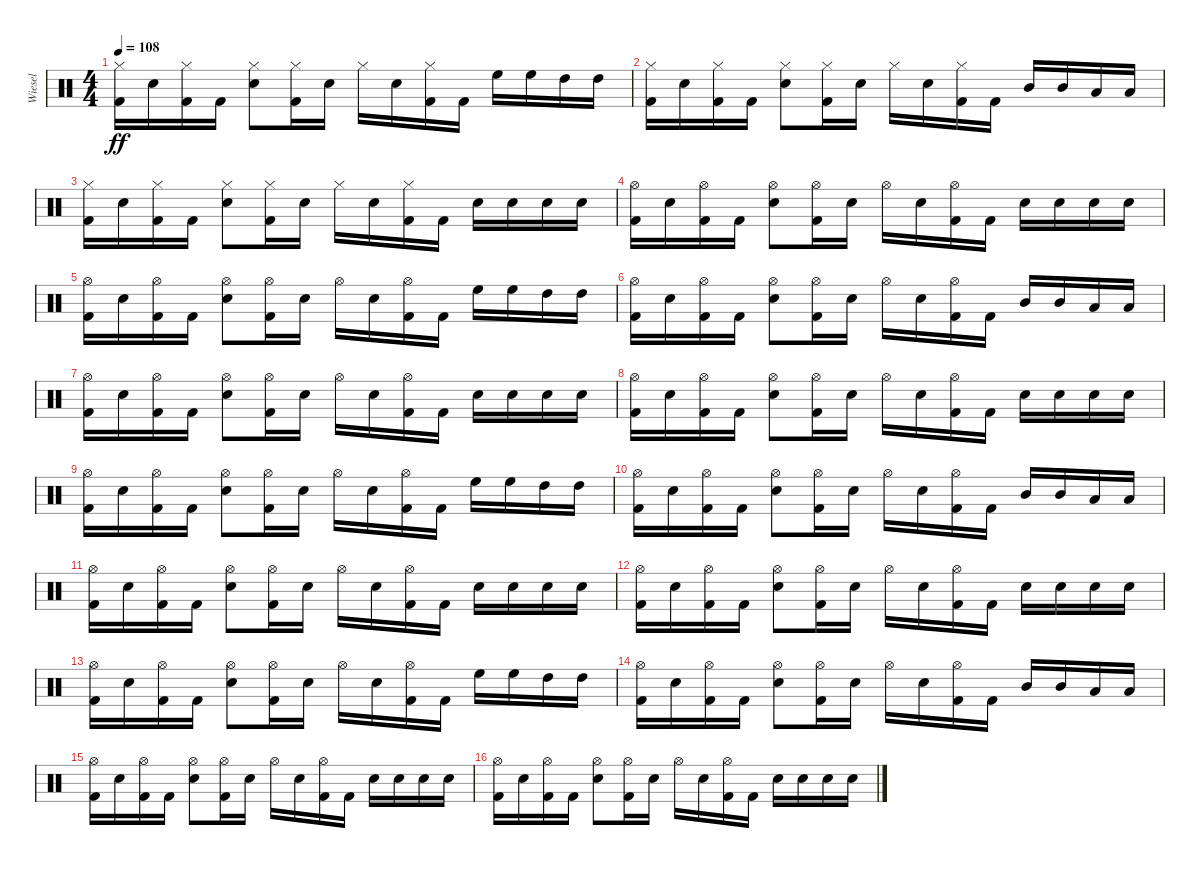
\track ("Wiesel" "Wiesel") {instrument percussion}
\staff {score}
\articulation defaults
\ts (4 4)
\tempo 108
\clef neutral
\ks c
("Hi-Hat (closed)" "Kick (hit) 2").16{dy ff} "Electric Snare (hit)".16 ("Hi-Hat (closed)" "Kick (hit) 2").16 "Kick (hit) 2".16 ("Hi-Hat (closed)" "Electric Snare (hit)").8 ("Hi-Hat (closed)" "Kick (hit) 2").16 "Electric Snare (hit)".16 "Hi-Hat (closed)".16 "Electric Snare (hit)".16 ("Hi-Hat (closed)" "Kick (hit) 2").16 "Kick (hit) 2".16 "High Floor Tom (hit)".16 "High Floor Tom (hit)".16 "High Tom (hit)".16 "High Tom (hit)".16 |
("Hi-Hat (closed)" "Kick (hit) 2").16 "Electric Snare (hit)".16 ("Hi-Hat (closed)" "Kick (hit) 2").16 "Kick (hit) 2".16 ("Hi-Hat (closed)" "Electric Snare (hit)").8 ("Hi-Hat (closed)" "Kick (hit) 2").16 "Electric Snare (hit)".16 "Hi-Hat (closed)".16 "Electric Snare (hit)".16 ("Hi-Hat (closed)" "Kick (hit) 2").16 "Kick (hit) 2".16 "Mid Tom (hit)".16 "Mid Tom (hit)".16 "Low Tom (hit)".16 "Low Tom (hit)".16 |
("Hi-Hat (closed)" "Kick (hit) 2").16 "Electric Snare (hit)".16 ("Hi-Hat (closed)" "Kick (hit) 2").16 "Kick (hit) 2".16 ("Hi-Hat (closed)" "Electric Snare (hit)").8 ("Hi-Hat (closed)" "Kick (hit) 2").16 "Electric Snare (hit)".16 "Hi-Hat (closed)".16 "Electric Snare (hit)".16 ("Hi-Hat (closed)" "Kick (hit) 2").16 "Kick (hit) 2".16 "Electric Snare (hit)".16 "Electric Snare (hit)".16 "Electric Snare (hit)".16 "Electric Snare (hit)".16 |
("Hi-Hat (open)" "Kick (hit) 2").16 "Electric Snare (hit)".16 ("Hi-Hat (open)" "Kick (hit) 2").16 "Kick (hit) 2".16 ("Hi-Hat (open)" "Electric Snare (hit)").8 ("Hi-Hat (open)" "Kick (hit) 2").16 "Electric Snare (hit)".16 "Hi-Hat (open)".16 "Electric Snare (hit)".16 ("Hi-Hat (open)" "Kick (hit) 2").16 "Kick (hit) 2".16 "Electric Snare (hit)".16 "Electric Snare (hit)".16 "Electric Snare (hit)".16 "Electric Snare (hit)".16 |
("Hi-Hat (open)" "Kick (hit) 2").16 "Electric Snare (hit)".16 ("Hi-Hat (open)" "Kick (hit) 2").16 "Kick (hit) 2".16 ("Hi-Hat (open)" "Electric Snare (hit)").8 ("Hi-Hat (open)" "Kick (hit) 2").16 "Electric Snare (hit)".16 "Hi-Hat (open)".16 "Electric Snare (hit)".16 ("Hi-Hat (open)" "Kick (hit) 2").16 "Kick (hit) 2".16 "High Floor Tom (hit)".16 "High Floor Tom (hit)".16 "High Tom (hit)".16 "High Tom (hit)".16 |
("Hi-Hat (open)" "Kick (hit) 2").16 "Electric Snare (hit)".16 ("Hi-Hat (open)" "Kick (hit) 2").16 "Kick (hit) 2".16 ("Hi-Hat (open)" "Electric Snare (hit)").8 ("Hi-Hat (open)" "Kick (hit) 2").16 "Electric Snare (hit)".16 "Hi-Hat (open)".16 "Electric Snare (hit)".16 ("Hi-Hat (open)" "Kick (hit) 2").16 "Kick (hit) 2".16 "Mid Tom (hit)".16 "Mid Tom (hit)".16 "Low Tom (hit)".16 "Low Tom (hit)".16 |
("Hi-Hat (open)" "Kick (hit) 2").16 "Electric Snare (hit)".16 ("Hi-Hat (open)" "Kick (hit) 2").16 "Kick (hit) 2".16 ("Hi-Hat (open)" "Electric Snare (hit)").8 ("Hi-Hat (open)" "Kick (hit) 2").16 "Electric Snare (hit)".16 "Hi-Hat (open)".16 "Electric Snare (hit)".16 ("Hi-Hat (open)" "Kick (hit) 2").16 "Kick (hit) 2".16 "Electric Snare (hit)".16 "Electric Snare (hit)".16 "Electric Snare (hit)".16 "Electric Snare (hit)".16 |
("Hi-Hat (open)" "Kick (hit) 2").16 "Electric Snare (hit)".16 ("Hi-Hat (open)" "Kick (hit) 2").16 "Kick (hit) 2".16 ("Hi-Hat (open)" "Electric Snare (hit)").8 ("Hi-Hat (open)" "Kick (hit) 2").16 "Electric Snare (hit)".16 "Hi-Hat (open)".16 "Electric Snare (hit)".16 ("Hi-Hat (open)" "Kick (hit) 2").16 "Kick (hit) 2".16 "Electric Snare (hit)".16 "Electric Snare (hit)".16 "Electric Snare (hit)".16 "Electric Snare (hit)".16 |
("Hi-Hat (open)" "Kick (hit) 2").16 "Electric Snare (hit)".16 ("Hi-Hat (open)" "Kick (hit) 2").16 "Kick (hit) 2".16 ("Hi-Hat (open)" "Electric Snare (hit)").8 ("Hi-Hat (open)" "Kick (hit) 2").16 "Electric Snare (hit)".16 "Hi-Hat (open)".16 "Electric Snare (hit)".16 ("Hi-Hat (open)" "Kick (hit) 2").16 "Kick (hit) 2".16 "High Floor Tom (hit)".16 "High Floor Tom (hit)".16 "High Tom (hit)".16 "High Tom (hit)".16 |
("Hi-Hat (open)" "Kick (hit) 2").16 "Electric Snare (hit)".16 ("Hi-Hat (open)" "Kick (hit) 2").16 "Kick (hit) 2".16 ("Hi-Hat (open)" "Electric Snare (hit)").8 ("Hi-Hat (open)" "Kick (hit) 2").16 "Electric Snare (hit)".16 "Hi-Hat (open)".16 "Electric Snare (hit)".16 ("Hi-Hat (open)" "Kick (hit) 2").16 "Kick (hit) 2".16 "Mid Tom (hit)".16 "Mid Tom (hit)".16 "Low Tom (hit)".16 "Low Tom (hit)".16 |
("Hi-Hat (open)" "Kick (hit) 2").16 "Electric Snare (hit)".16 ("Hi-Hat (open)" "Kick (hit) 2").16 "Kick (hit) 2".16 ("Hi-Hat (open)" "Electric Snare (hit)").8 ("Hi-Hat (open)" "Kick (hit) 2").16 "Electric Snare (hit)".16 "Hi-Hat (open)".16 "Electric Snare (hit)".16 ("Hi-Hat (open)" "Kick (hit) 2").16 "Kick (hit) 2".16 "Electric Snare (hit)".16 "Electric Snare (hit)".16 "Electric Snare (hit)".16 "Electric Snare (hit)".16 |
("Hi-Hat (open)" "Kick (hit) 2").16 "Electric Snare (hit)".16 ("Hi-Hat (open)" "Kick (hit) 2").16 "Kick (hit) 2".16 ("Hi-Hat (open)" "Electric Snare (hit)").8 ("Hi-Hat (open)" "Kick (hit) 2").16 "Electric Snare (hit)".16 "Hi-Hat (open)".16 "Electric Snare (hit)".16 ("Hi-Hat (open)" "Kick (hit) 2").16 "Kick (hit) 2".16 "Electric Snare (hit)".16 "Electric Snare (hit)".16 "Electric Snare (hit)".16 "Electric Snare (hit)".16 |
("Hi-Hat (open)" "Kick (hit) 2").16 "Electric Snare (hit)".16 ("Hi-Hat (open)" "Kick (hit) 2").16 "Kick (hit) 2".16 ("Hi-Hat (open)" "Electric Snare (hit)").8 ("Hi-Hat (open)" "Kick (hit) 2").16 "Electric Snare (hit)".16 "Hi-Hat (open)".16 "Electric Snare (hit)".16 ("Hi-Hat (open)" "Kick (hit) 2").16 "Kick (hit) 2".16 "High Floor Tom (hit)".16 "High Floor Tom (hit)".16 "High Tom (hit)".16 "High Tom (hit)".16 |
("Hi-Hat (open)" "Kick (hit) 2").16 "Electric Snare (hit)".16 ("Hi-Hat (open)" "Kick (hit) 2").16 "Kick (hit) 2".16 ("Hi-Hat (open)" "Electric Snare (hit)").8 ("Hi-Hat (open)" "Kick (hit) 2").16 "Electric Snare (hit)".16 "Hi-Hat (open)".16 "Electric Snare (hit)".16 ("Hi-Hat (open)" "Kick (hit) 2").16 "Kick (hit) 2".16 "Mid Tom (hit)".16 "Mid Tom (hit)".16 "Low Tom (hit)".16 "Low Tom (hit)".16 |
("Hi-Hat (open)" "Kick (hit) 2").16 "Electric Snare (hit)".16 ("Hi-Hat (open)" "Kick (hit) 2").16 "Kick (hit) 2".16 ("Hi-Hat (open)" "Electric Snare (hit)").8 ("Hi-Hat (open)" "Kick (hit) 2").16 "Electric Snare (hit)".16 "Hi-Hat (open)".16 "Electric Snare (hit)".16 ("Hi-Hat (open)" "Kick (hit) 2").16 "Kick (hit) 2".16 "Electric Snare (hit)".16 "Electric Snare (hit)".16 "Electric Snare (hit)".16 "Electric Snare (hit)".16 |
("Hi-Hat (open)" "Kick (hit) 2").16 "Electric Snare (hit)".16 ("Hi-Hat (open)" "Kick (hit) 2").16 "Kick (hit) 2".16 ("Hi-Hat (open)" "Electric Snare (hit)").8 ("Hi-Hat (open)" "Kick (hit) 2").16 "Electric Snare (hit)".16 "Hi-Hat (open)".16 "Electric Snare (hit)".16 ("Hi-Hat (open)" "Kick (hit) 2").16 "Kick (hit) 2".16 "Electric Snare (hit)".16 "Electric Snare (hit)".16 "Electric Snare (hit)".16 "Electric Snare (hit)".16
